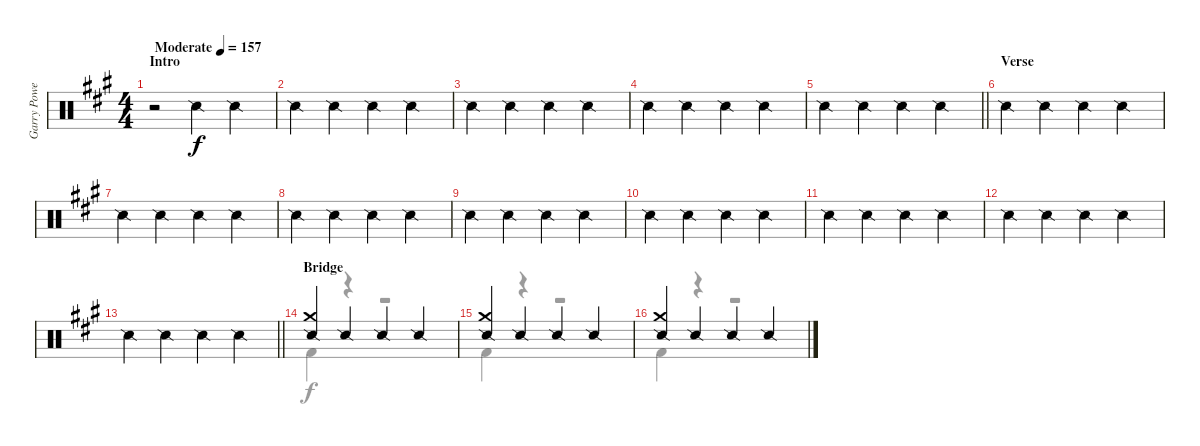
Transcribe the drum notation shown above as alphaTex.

\track ("Garry Powell" "Garry Powe") {instrument percussion}
\staff {score}
\articulation defaults
\voice
\ts (4 4)
\section ("" "Intro")
\tempo (157 "Moderate")
\clef neutral
\ks a
r.2{dy f} "Snare (side stick) 2".4 "Snare (side stick) 2".4 |
"Snare (side stick) 2".4 "Snare (side stick) 2".4 "Snare (side stick) 2".4 "Snare (side stick) 2".4 |
"Snare (side stick) 2".4 "Snare (side stick) 2".4 "Snare (side stick) 2".4 "Snare (side stick) 2".4 |
"Snare (side stick) 2".4 "Snare (side stick) 2".4 "Snare (side stick) 2".4 "Snare (side stick) 2".4 |
\barLineRight lightlight "Snare (side stick) 2".4 "Snare (side stick) 2".4 "Snare (side stick) 2".4 "Snare (side stick) 2".4
|
\section ("" "Verse")
"Snare (side stick) 2".4 "Snare (side stick) 2".4 "Snare (side stick) 2".4 "Snare (side stick) 2".4 |
"Snare (side stick) 2".4 "Snare (side stick) 2".4 "Snare (side stick) 2".4 "Snare (side stick) 2".4 |
"Snare (side stick) 2".4 "Snare (side stick) 2".4 "Snare (side stick) 2".4 "Snare (side stick) 2".4 |
"Snare (side stick) 2".4 "Snare (side stick) 2".4 "Snare (side stick) 2".4 "Snare (side stick) 2".4 |
"Snare (side stick) 2".4 "Snare (side stick) 2".4 "Snare (side stick) 2".4 "Snare (side stick) 2".4 |
"Snare (side stick) 2".4 "Snare (side stick) 2".4 "Snare (side stick) 2".4 "Snare (side stick) 2".4 |
"Snare (side stick) 2".4 "Snare (side stick) 2".4 "Snare (side stick) 2".4 "Snare (side stick) 2".4 |
\barLineRight lightlight "Snare (side stick) 2".4 "Snare (side stick) 2".4 "Snare (side stick) 2".4 "Snare (side stick) 2".4
|
\section ("" "Bridge")
("Crash medium (hit)" "Snare (side stick) 2").4 "Snare (side stick) 2".4 "Snare (side stick) 2".4 "Snare (side stick) 2".4 |
("Crash medium (hit)" "Snare (side stick) 2").4 "Snare (side stick) 2".4 "Snare (side stick) 2".4 "Snare (side stick) 2".4 |
("Crash medium (hit)" "Snare (side stick) 2").4 "Snare (side stick) 2".4 "Snare (side stick) 2".4 "Snare (side stick) 2".4
\voice
\clef neutral
\ottava regular
\simile none
\ks a
|
|
|
|
\barLineRight lightlight
|
|
|
|
|
|
|
|
\barLineRight lightlight
|
"Kick (hit) 2".4 r.4 r.2 |
"Kick (hit) 2".4 r.4 r.2 |
"Kick (hit) 2".4 r.4 r.2
